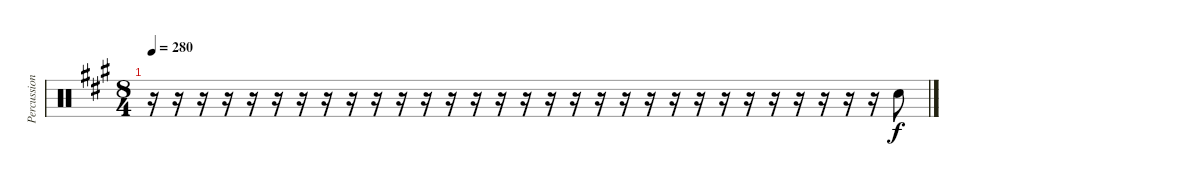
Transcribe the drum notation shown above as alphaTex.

\track ("Percussion" "Percussion") {instrument percussion}
\staff {score}
\articulation defaults
\ts (8 4)
\tempo 280
\clef neutral
\ks a
r.16{dy f} r.16 r.16 r.16 r.16 r.16 r.16 r.16 r.16 r.16 r.16 r.16 r.16 r.16 r.16 r.16 r.16 r.16 r.16 r.16 r.16 r.16 r.16 r.16 r.16 r.16 r.16 r.16 r.16 r.16 "Electric Snare (hit)".8
